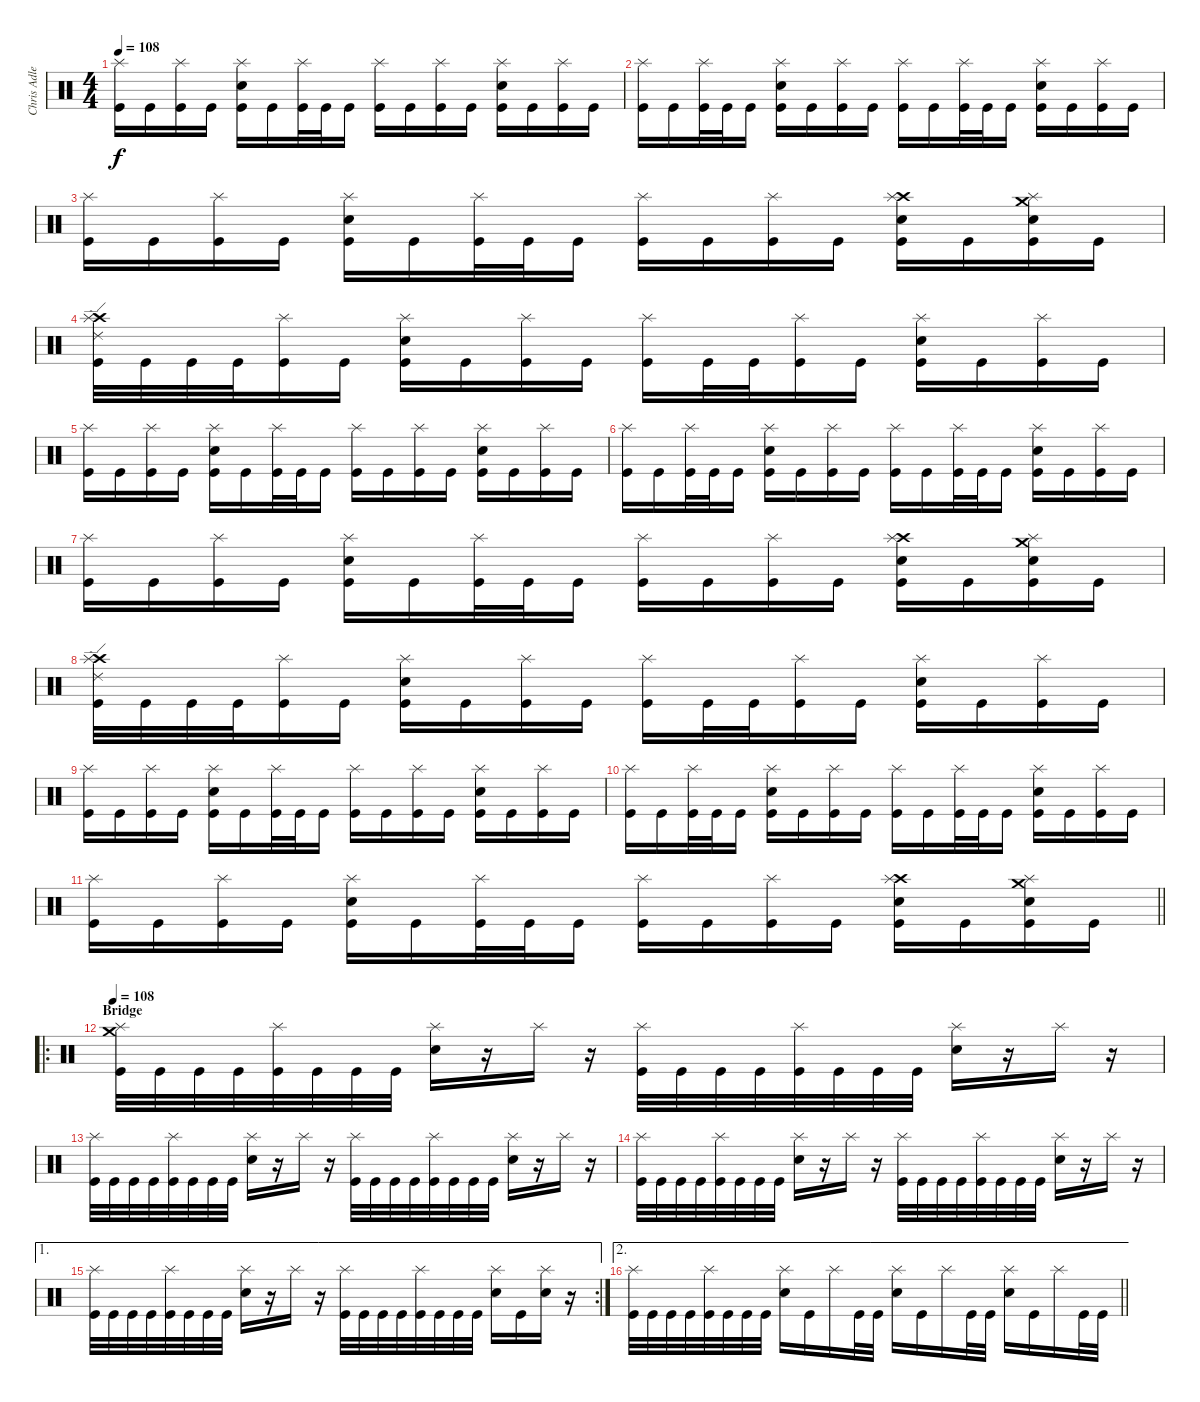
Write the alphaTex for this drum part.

\track ("Chris Adler (Drumkit)" "Chris Adle") {instrument percussion}
\staff {score}
\articulation defaults
\ts (4 4)
\tempo 108
\clef neutral
\ks c
("Kick (hit)" "Splash (hit)").16{dy f} "Kick (hit)".16 ("Kick (hit)" "Splash (hit)").16 "Kick (hit)".16 ("Kick (hit)" "Snare (hit) 2" "Splash (hit)").16 "Kick (hit)".16 ("Kick (hit)" "Splash (hit)").32 "Kick (hit)".32 "Kick (hit)".16 ("Kick (hit)" "Splash (hit)").16 "Kick (hit)".16 ("Kick (hit)" "Splash (hit)").16 "Kick (hit)".16 ("Kick (hit)" "Snare (hit) 2" "Splash (hit)").16 "Kick (hit)".16 ("Kick (hit)" "Splash (hit)").16 "Kick (hit)".16 |
("Kick (hit)" "Splash (hit)").16 "Kick (hit)".16 ("Kick (hit)" "Splash (hit)").32 "Kick (hit)".32 "Kick (hit)".16 ("Kick (hit)" "Snare (hit) 2" "Splash (hit)").16 "Kick (hit)".16 ("Kick (hit)" "Splash (hit)").16 "Kick (hit)".16 ("Kick (hit)" "Splash (hit)").16 "Kick (hit)".16 ("Kick (hit)" "Splash (hit)").32 "Kick (hit)".32 "Kick (hit)".16 ("Kick (hit)" "Snare (hit) 2" "Splash (hit)").16 "Kick (hit)".16 ("Kick (hit)" "Splash (hit)").16 "Kick (hit)".16 |
("Kick (hit)" "Splash (hit)").16 "Kick (hit)".16 ("Kick (hit)" "Splash (hit)").16 "Kick (hit)".16 ("Kick (hit)" "Snare (hit) 2" "Splash (hit)").16 "Kick (hit)".16 ("Kick (hit)" "Splash (hit)").32 "Kick (hit)".32 "Kick (hit)".16 ("Kick (hit)" "Splash (hit)").16 "Kick (hit)".16 ("Kick (hit)" "Splash (hit)").16 "Kick (hit)".16 ("Kick (hit)" "Crash high (hit)" "Snare (hit) 2" "Splash (hit)").16 "Kick (hit)".16 ("Kick (hit)" "Crash medium (hit)" "Snare (hit) 2" "Splash (hit)").16 "Kick (hit)".16 |
("Kick (hit)" "Crash high (hit)" "Ride (edge) 2" "Splash (hit)").32 "Kick (hit)".32 "Kick (hit)".32 "Kick (hit)".32 ("Kick (hit)" "Splash (hit)").16 "Kick (hit)".16 ("Kick (hit)" "Snare (hit) 2" "Splash (hit)").16 "Kick (hit)".16 ("Kick (hit)" "Splash (hit)").16 "Kick (hit)".16 ("Kick (hit)" "Splash (hit)").16 "Kick (hit)".32 "Kick (hit)".32 ("Kick (hit)" "Splash (hit)").16 "Kick (hit)".16 ("Kick (hit)" "Snare (hit) 2" "Splash (hit)").16 "Kick (hit)".16 ("Kick (hit)" "Splash (hit)").16 "Kick (hit)".16 |
("Kick (hit)" "Splash (hit)").16 "Kick (hit)".16 ("Kick (hit)" "Splash (hit)").16 "Kick (hit)".16 ("Kick (hit)" "Snare (hit) 2" "Splash (hit)").16 "Kick (hit)".16 ("Kick (hit)" "Splash (hit)").32 "Kick (hit)".32 "Kick (hit)".16 ("Kick (hit)" "Splash (hit)").16 "Kick (hit)".16 ("Kick (hit)" "Splash (hit)").16 "Kick (hit)".16 ("Kick (hit)" "Snare (hit) 2" "Splash (hit)").16 "Kick (hit)".16 ("Kick (hit)" "Splash (hit)").16 "Kick (hit)".16 |
("Kick (hit)" "Splash (hit)").16 "Kick (hit)".16 ("Kick (hit)" "Splash (hit)").32 "Kick (hit)".32 "Kick (hit)".16 ("Kick (hit)" "Snare (hit) 2" "Splash (hit)").16 "Kick (hit)".16 ("Kick (hit)" "Splash (hit)").16 "Kick (hit)".16 ("Kick (hit)" "Splash (hit)").16 "Kick (hit)".16 ("Kick (hit)" "Splash (hit)").32 "Kick (hit)".32 "Kick (hit)".16 ("Kick (hit)" "Snare (hit) 2" "Splash (hit)").16 "Kick (hit)".16 ("Kick (hit)" "Splash (hit)").16 "Kick (hit)".16 |
("Kick (hit)" "Splash (hit)").16 "Kick (hit)".16 ("Kick (hit)" "Splash (hit)").16 "Kick (hit)".16 ("Kick (hit)" "Snare (hit) 2" "Splash (hit)").16 "Kick (hit)".16 ("Kick (hit)" "Splash (hit)").32 "Kick (hit)".32 "Kick (hit)".16 ("Kick (hit)" "Splash (hit)").16 "Kick (hit)".16 ("Kick (hit)" "Splash (hit)").16 "Kick (hit)".16 ("Kick (hit)" "Crash high (hit)" "Snare (hit) 2" "Splash (hit)").16 "Kick (hit)".16 ("Kick (hit)" "Crash medium (hit)" "Snare (hit) 2" "Splash (hit)").16 "Kick (hit)".16 |
("Kick (hit)" "Crash high (hit)" "Ride (edge) 2" "Splash (hit)").32 "Kick (hit)".32 "Kick (hit)".32 "Kick (hit)".32 ("Kick (hit)" "Splash (hit)").16 "Kick (hit)".16 ("Kick (hit)" "Snare (hit) 2" "Splash (hit)").16 "Kick (hit)".16 ("Kick (hit)" "Splash (hit)").16 "Kick (hit)".16 ("Kick (hit)" "Splash (hit)").16 "Kick (hit)".32 "Kick (hit)".32 ("Kick (hit)" "Splash (hit)").16 "Kick (hit)".16 ("Kick (hit)" "Snare (hit) 2" "Splash (hit)").16 "Kick (hit)".16 ("Kick (hit)" "Splash (hit)").16 "Kick (hit)".16 |
("Kick (hit)" "Splash (hit)").16 "Kick (hit)".16 ("Kick (hit)" "Splash (hit)").16 "Kick (hit)".16 ("Kick (hit)" "Snare (hit) 2" "Splash (hit)").16 "Kick (hit)".16 ("Kick (hit)" "Splash (hit)").32 "Kick (hit)".32 "Kick (hit)".16 ("Kick (hit)" "Splash (hit)").16 "Kick (hit)".16 ("Kick (hit)" "Splash (hit)").16 "Kick (hit)".16 ("Kick (hit)" "Snare (hit) 2" "Splash (hit)").16 "Kick (hit)".16 ("Kick (hit)" "Splash (hit)").16 "Kick (hit)".16 |
("Kick (hit)" "Splash (hit)").16 "Kick (hit)".16 ("Kick (hit)" "Splash (hit)").32 "Kick (hit)".32 "Kick (hit)".16 ("Kick (hit)" "Snare (hit) 2" "Splash (hit)").16 "Kick (hit)".16 ("Kick (hit)" "Splash (hit)").16 "Kick (hit)".16 ("Kick (hit)" "Splash (hit)").16 "Kick (hit)".16 ("Kick (hit)" "Splash (hit)").32 "Kick (hit)".32 "Kick (hit)".16 ("Kick (hit)" "Snare (hit) 2" "Splash (hit)").16 "Kick (hit)".16 ("Kick (hit)" "Splash (hit)").16 "Kick (hit)".16 |
\barLineRight lightlight
("Kick (hit)" "Splash (hit)").16 "Kick (hit)".16 ("Kick (hit)" "Splash (hit)").16 "Kick (hit)".16 ("Kick (hit)" "Snare (hit) 2" "Splash (hit)").16 "Kick (hit)".16 ("Kick (hit)" "Splash (hit)").32 "Kick (hit)".32 "Kick (hit)".16 ("Kick (hit)" "Splash (hit)").16 "Kick (hit)".16 ("Kick (hit)" "Splash (hit)").16 "Kick (hit)".16 ("Kick (hit)" "Crash high (hit)" "Snare (hit) 2" "Splash (hit)").16 "Kick (hit)".16 ("Kick (hit)" "Crash medium (hit)" "Snare (hit) 2" "Splash (hit)").16 "Kick (hit)".16 |
\ro
\section ("" "Bridge")
\tempo 108
("Kick (hit)" "Crash medium (hit)" "Splash (hit)").32 "Kick (hit)".32 "Kick (hit)".32 "Kick (hit)".32 ("Kick (hit)" "Splash (hit)").32 "Kick (hit)".32 "Kick (hit)".32 "Kick (hit)".32 ("Snare (hit) 2" "Splash (hit)").16 r.16 "Splash (hit)".16 r.16 ("Kick (hit)" "Splash (hit)").32 "Kick (hit)".32 "Kick (hit)".32 "Kick (hit)".32 ("Kick (hit)" "Splash (hit)").32 "Kick (hit)".32 "Kick (hit)".32 "Kick (hit)".32 ("Snare (hit) 2" "Splash (hit)").16 r.16 "Splash (hit)".16 r.16 |
("Kick (hit)" "Splash (hit)").32 "Kick (hit)".32 "Kick (hit)".32 "Kick (hit)".32 ("Kick (hit)" "Splash (hit)").32 "Kick (hit)".32 "Kick (hit)".32 "Kick (hit)".32 ("Snare (hit) 2" "Splash (hit)").16 r.16 "Splash (hit)".16 r.16 ("Kick (hit)" "Splash (hit)").32 "Kick (hit)".32 "Kick (hit)".32 "Kick (hit)".32 ("Kick (hit)" "Splash (hit)").32 "Kick (hit)".32 "Kick (hit)".32 "Kick (hit)".32 ("Snare (hit) 2" "Splash (hit)").16 r.16 "Splash (hit)".16 r.16 |
("Kick (hit)" "Splash (hit)").32 "Kick (hit)".32 "Kick (hit)".32 "Kick (hit)".32 ("Kick (hit)" "Splash (hit)").32 "Kick (hit)".32 "Kick (hit)".32 "Kick (hit)".32 ("Snare (hit) 2" "Splash (hit)").16 r.16 "Splash (hit)".16 r.16 ("Kick (hit)" "Splash (hit)").32 "Kick (hit)".32 "Kick (hit)".32 "Kick (hit)".32 ("Kick (hit)" "Splash (hit)").32 "Kick (hit)".32 "Kick (hit)".32 "Kick (hit)".32 ("Snare (hit) 2" "Splash (hit)").16 r.16 "Splash (hit)".16 r.16 |
\ae 1
\rc 2
("Kick (hit)" "Splash (hit)").32 "Kick (hit)".32 "Kick (hit)".32 "Kick (hit)".32 ("Kick (hit)" "Splash (hit)").32 "Kick (hit)".32 "Kick (hit)".32 "Kick (hit)".32 ("Snare (hit) 2" "Splash (hit)").16 r.16 "Splash (hit)".16 r.16 ("Kick (hit)" "Splash (hit)").32 "Kick (hit)".32 "Kick (hit)".32 "Kick (hit)".32 ("Kick (hit)" "Splash (hit)").32 "Kick (hit)".32 "Kick (hit)".32 "Kick (hit)".32 ("Snare (hit) 2" "Splash (hit)").16 "Kick (hit)".16 ("Snare (hit) 2" "Splash (hit)").16 r.16 |
\ae 2
\barLineRight lightlight
("Kick (hit)" "Splash (hit)").32 "Kick (hit)".32 "Kick (hit)".32 "Kick (hit)".32 ("Kick (hit)" "Splash (hit)").32 "Kick (hit)".32 "Kick (hit)".32 "Kick (hit)".32 ("Snare (hit) 2" "Splash (hit)").16 "Kick (hit)".16 "Splash (hit)".16 "Kick (hit)".32 "Kick (hit)".32 ("Snare (hit) 2" "Splash (hit)").16 "Kick (hit)".16 "Splash (hit)".16 "Kick (hit)".32 "Kick (hit)".32 ("Snare (hit) 2" "Splash (hit)").16 "Kick (hit)".16 "Splash (hit)".16 "Kick (hit)".32 "Kick (hit)".32
